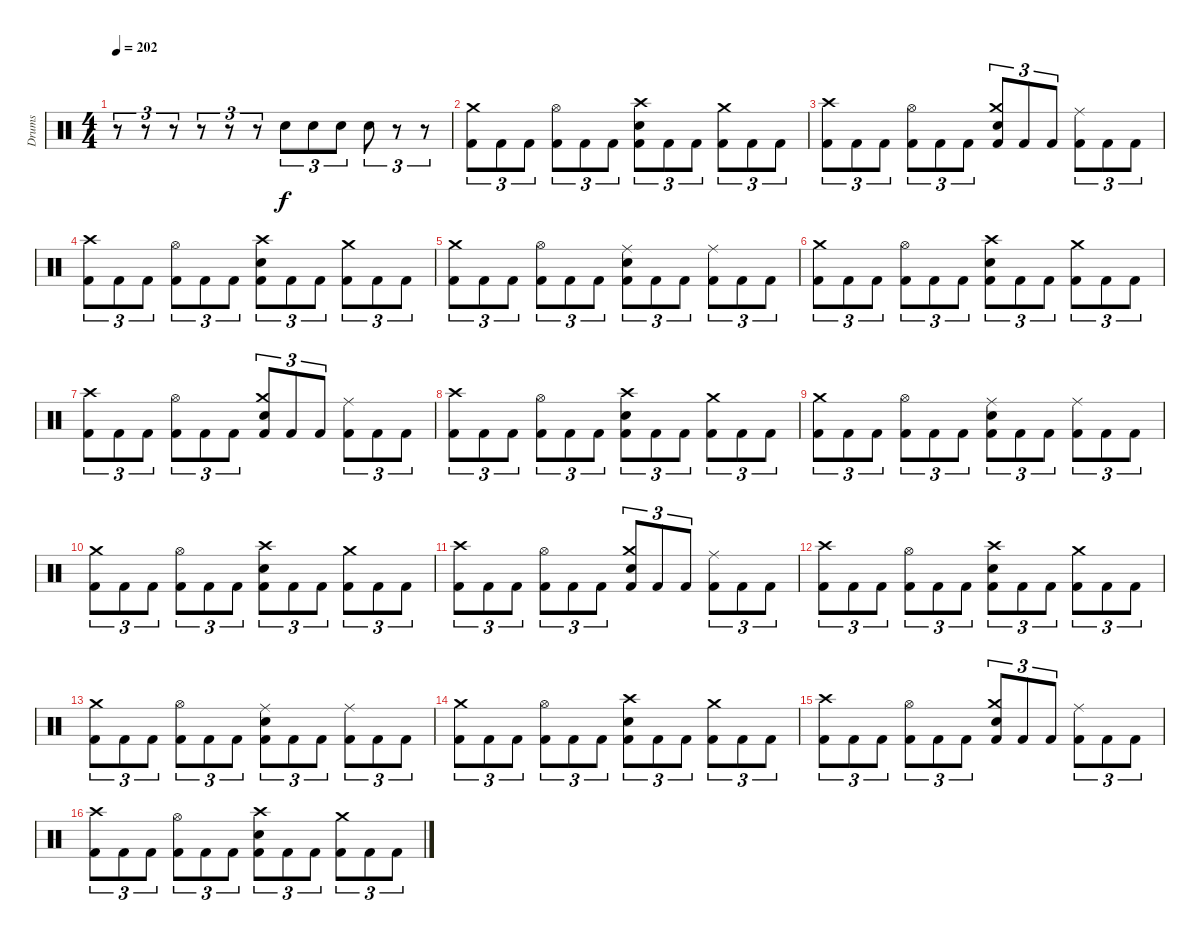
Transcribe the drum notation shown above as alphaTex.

\track ("Drums" "Drums") {instrument percussion}
\staff {score}
\articulation defaults
\ts (4 4)
\tempo 202
\clef neutral
\ks c
r.8{tu (3 2) dy f} r.8{tu (3 2)} r.8{tu (3 2)} r.8{tu (3 2)} r.8{tu (3 2)} r.8{tu (3 2)} "Electric Snare (hit)".8{tu (3 2)} "Electric Snare (hit)".8{tu (3 2)} "Electric Snare (hit)".8{tu (3 2)} "Electric Snare (hit)".8{tu (3 2)} r.8{tu (3 2)} r.8{tu (3 2)} |
("Crash medium (hit)" "Kick (hit) 2").8{tu (3 2)} "Kick (hit) 2".8{tu (3 2)} "Kick (hit) 2".8{tu (3 2)} ("Hi-Hat (open)" "Kick (hit) 2").8{tu (3 2)} "Kick (hit) 2".8{tu (3 2)} "Kick (hit) 2".8{tu (3 2)} ("Crash high (hit)" "Electric Snare (hit)" "Kick (hit) 2").8{tu (3 2)} "Kick (hit) 2".8{tu (3 2)} "Kick (hit) 2".8{tu (3 2)} ("Crash medium (hit)" "Kick (hit) 2").8{tu (3 2)} "Kick (hit) 2".8{tu (3 2)} "Kick (hit) 2".8{tu (3 2)} |
("Crash high (hit)" "Kick (hit) 2").8{tu (3 2)} "Kick (hit) 2".8{tu (3 2)} "Kick (hit) 2".8{tu (3 2)} ("Hi-Hat (open)" "Kick (hit) 2").8{tu (3 2)} "Kick (hit) 2".8{tu (3 2)} "Kick (hit) 2".8{tu (3 2)} ("Crash medium (hit)" "Electric Snare (hit)" "Kick (hit) 2").8{tu (3 2)} "Kick (hit) 2".8{tu (3 2)} "Kick (hit) 2".8{tu (3 2)} ("Ride (middle)" "Kick (hit) 2").8{tu (3 2)} "Kick (hit) 2".8{tu (3 2)} "Kick (hit) 2".8{tu (3 2)} |
("Crash high (hit)" "Kick (hit) 2").8{tu (3 2)} "Kick (hit) 2".8{tu (3 2)} "Kick (hit) 2".8{tu (3 2)} ("Hi-Hat (open)" "Kick (hit) 2").8{tu (3 2)} "Kick (hit) 2".8{tu (3 2)} "Kick (hit) 2".8{tu (3 2)} ("Crash high (hit)" "Electric Snare (hit)" "Kick (hit) 2").8{tu (3 2)} "Kick (hit) 2".8{tu (3 2)} "Kick (hit) 2".8{tu (3 2)} ("Crash medium (hit)" "Kick (hit) 2").8{tu (3 2)} "Kick (hit) 2".8{tu (3 2)} "Kick (hit) 2".8{tu (3 2)} |
("Crash medium (hit)" "Kick (hit) 2").8{tu (3 2)} "Kick (hit) 2".8{tu (3 2)} "Kick (hit) 2".8{tu (3 2)} ("Hi-Hat (open)" "Kick (hit) 2").8{tu (3 2)} "Kick (hit) 2".8{tu (3 2)} "Kick (hit) 2".8{tu (3 2)} ("Ride (middle)" "Electric Snare (hit)" "Kick (hit) 2").8{tu (3 2)} "Kick (hit) 2".8{tu (3 2)} "Kick (hit) 2".8{tu (3 2)} ("Ride (middle)" "Kick (hit) 2").8{tu (3 2)} "Kick (hit) 2".8{tu (3 2)} "Kick (hit) 2".8{tu (3 2)} |
("Crash medium (hit)" "Kick (hit) 2").8{tu (3 2)} "Kick (hit) 2".8{tu (3 2)} "Kick (hit) 2".8{tu (3 2)} ("Hi-Hat (open)" "Kick (hit) 2").8{tu (3 2)} "Kick (hit) 2".8{tu (3 2)} "Kick (hit) 2".8{tu (3 2)} ("Crash high (hit)" "Electric Snare (hit)" "Kick (hit) 2").8{tu (3 2)} "Kick (hit) 2".8{tu (3 2)} "Kick (hit) 2".8{tu (3 2)} ("Crash medium (hit)" "Kick (hit) 2").8{tu (3 2)} "Kick (hit) 2".8{tu (3 2)} "Kick (hit) 2".8{tu (3 2)} |
("Crash high (hit)" "Kick (hit) 2").8{tu (3 2)} "Kick (hit) 2".8{tu (3 2)} "Kick (hit) 2".8{tu (3 2)} ("Hi-Hat (open)" "Kick (hit) 2").8{tu (3 2)} "Kick (hit) 2".8{tu (3 2)} "Kick (hit) 2".8{tu (3 2)} ("Crash medium (hit)" "Electric Snare (hit)" "Kick (hit) 2").8{tu (3 2)} "Kick (hit) 2".8{tu (3 2)} "Kick (hit) 2".8{tu (3 2)} ("Ride (middle)" "Kick (hit) 2").8{tu (3 2)} "Kick (hit) 2".8{tu (3 2)} "Kick (hit) 2".8{tu (3 2)} |
("Crash high (hit)" "Kick (hit) 2").8{tu (3 2)} "Kick (hit) 2".8{tu (3 2)} "Kick (hit) 2".8{tu (3 2)} ("Hi-Hat (open)" "Kick (hit) 2").8{tu (3 2)} "Kick (hit) 2".8{tu (3 2)} "Kick (hit) 2".8{tu (3 2)} ("Crash high (hit)" "Electric Snare (hit)" "Kick (hit) 2").8{tu (3 2)} "Kick (hit) 2".8{tu (3 2)} "Kick (hit) 2".8{tu (3 2)} ("Crash medium (hit)" "Kick (hit) 2").8{tu (3 2)} "Kick (hit) 2".8{tu (3 2)} "Kick (hit) 2".8{tu (3 2)} |
("Crash medium (hit)" "Kick (hit) 2").8{tu (3 2)} "Kick (hit) 2".8{tu (3 2)} "Kick (hit) 2".8{tu (3 2)} ("Hi-Hat (open)" "Kick (hit) 2").8{tu (3 2)} "Kick (hit) 2".8{tu (3 2)} "Kick (hit) 2".8{tu (3 2)} ("Ride (middle)" "Electric Snare (hit)" "Kick (hit) 2").8{tu (3 2)} "Kick (hit) 2".8{tu (3 2)} "Kick (hit) 2".8{tu (3 2)} ("Ride (middle)" "Kick (hit) 2").8{tu (3 2)} "Kick (hit) 2".8{tu (3 2)} "Kick (hit) 2".8{tu (3 2)} |
("Crash medium (hit)" "Kick (hit) 2").8{tu (3 2)} "Kick (hit) 2".8{tu (3 2)} "Kick (hit) 2".8{tu (3 2)} ("Hi-Hat (open)" "Kick (hit) 2").8{tu (3 2)} "Kick (hit) 2".8{tu (3 2)} "Kick (hit) 2".8{tu (3 2)} ("Crash high (hit)" "Electric Snare (hit)" "Kick (hit) 2").8{tu (3 2)} "Kick (hit) 2".8{tu (3 2)} "Kick (hit) 2".8{tu (3 2)} ("Crash medium (hit)" "Kick (hit) 2").8{tu (3 2)} "Kick (hit) 2".8{tu (3 2)} "Kick (hit) 2".8{tu (3 2)} |
("Crash high (hit)" "Kick (hit) 2").8{tu (3 2)} "Kick (hit) 2".8{tu (3 2)} "Kick (hit) 2".8{tu (3 2)} ("Hi-Hat (open)" "Kick (hit) 2").8{tu (3 2)} "Kick (hit) 2".8{tu (3 2)} "Kick (hit) 2".8{tu (3 2)} ("Crash medium (hit)" "Electric Snare (hit)" "Kick (hit) 2").8{tu (3 2)} "Kick (hit) 2".8{tu (3 2)} "Kick (hit) 2".8{tu (3 2)} ("Ride (middle)" "Kick (hit) 2").8{tu (3 2)} "Kick (hit) 2".8{tu (3 2)} "Kick (hit) 2".8{tu (3 2)} |
("Crash high (hit)" "Kick (hit) 2").8{tu (3 2)} "Kick (hit) 2".8{tu (3 2)} "Kick (hit) 2".8{tu (3 2)} ("Hi-Hat (open)" "Kick (hit) 2").8{tu (3 2)} "Kick (hit) 2".8{tu (3 2)} "Kick (hit) 2".8{tu (3 2)} ("Crash high (hit)" "Electric Snare (hit)" "Kick (hit) 2").8{tu (3 2)} "Kick (hit) 2".8{tu (3 2)} "Kick (hit) 2".8{tu (3 2)} ("Crash medium (hit)" "Kick (hit) 2").8{tu (3 2)} "Kick (hit) 2".8{tu (3 2)} "Kick (hit) 2".8{tu (3 2)} |
("Crash medium (hit)" "Kick (hit) 2").8{tu (3 2)} "Kick (hit) 2".8{tu (3 2)} "Kick (hit) 2".8{tu (3 2)} ("Hi-Hat (open)" "Kick (hit) 2").8{tu (3 2)} "Kick (hit) 2".8{tu (3 2)} "Kick (hit) 2".8{tu (3 2)} ("Ride (middle)" "Electric Snare (hit)" "Kick (hit) 2").8{tu (3 2)} "Kick (hit) 2".8{tu (3 2)} "Kick (hit) 2".8{tu (3 2)} ("Ride (middle)" "Kick (hit) 2").8{tu (3 2)} "Kick (hit) 2".8{tu (3 2)} "Kick (hit) 2".8{tu (3 2)} |
("Crash medium (hit)" "Kick (hit) 2").8{tu (3 2)} "Kick (hit) 2".8{tu (3 2)} "Kick (hit) 2".8{tu (3 2)} ("Hi-Hat (open)" "Kick (hit) 2").8{tu (3 2)} "Kick (hit) 2".8{tu (3 2)} "Kick (hit) 2".8{tu (3 2)} ("Crash high (hit)" "Electric Snare (hit)" "Kick (hit) 2").8{tu (3 2)} "Kick (hit) 2".8{tu (3 2)} "Kick (hit) 2".8{tu (3 2)} ("Crash medium (hit)" "Kick (hit) 2").8{tu (3 2)} "Kick (hit) 2".8{tu (3 2)} "Kick (hit) 2".8{tu (3 2)} |
("Crash high (hit)" "Kick (hit) 2").8{tu (3 2)} "Kick (hit) 2".8{tu (3 2)} "Kick (hit) 2".8{tu (3 2)} ("Hi-Hat (open)" "Kick (hit) 2").8{tu (3 2)} "Kick (hit) 2".8{tu (3 2)} "Kick (hit) 2".8{tu (3 2)} ("Crash medium (hit)" "Electric Snare (hit)" "Kick (hit) 2").8{tu (3 2)} "Kick (hit) 2".8{tu (3 2)} "Kick (hit) 2".8{tu (3 2)} ("Ride (middle)" "Kick (hit) 2").8{tu (3 2)} "Kick (hit) 2".8{tu (3 2)} "Kick (hit) 2".8{tu (3 2)} |
("Crash high (hit)" "Kick (hit) 2").8{tu (3 2)} "Kick (hit) 2".8{tu (3 2)} "Kick (hit) 2".8{tu (3 2)} ("Hi-Hat (open)" "Kick (hit) 2").8{tu (3 2)} "Kick (hit) 2".8{tu (3 2)} "Kick (hit) 2".8{tu (3 2)} ("Crash high (hit)" "Electric Snare (hit)" "Kick (hit) 2").8{tu (3 2)} "Kick (hit) 2".8{tu (3 2)} "Kick (hit) 2".8{tu (3 2)} ("Crash medium (hit)" "Kick (hit) 2").8{tu (3 2)} "Kick (hit) 2".8{tu (3 2)} "Kick (hit) 2".8{tu (3 2)}
